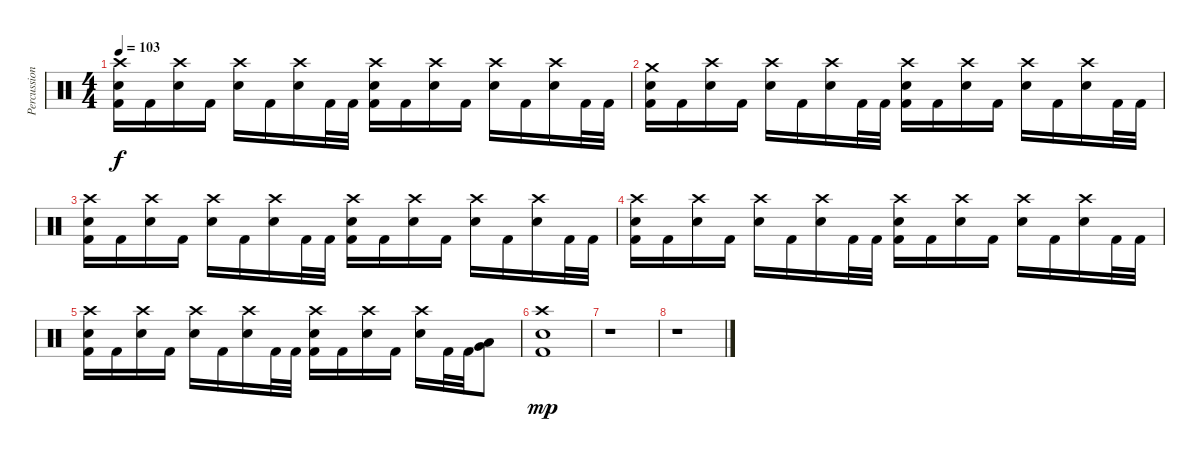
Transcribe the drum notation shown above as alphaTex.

\track ("Percussion - Brandon Barnes" "Percussion") {instrument percussion}
\staff {score}
\articulation defaults
\ts (4 4)
\tempo 103
\clef neutral
\ks c
("Crash high (hit)" "Electric Snare (hit)" "Kick (hit) 2").16{dy f} "Kick (hit) 2".16 ("Crash high (hit)" "Electric Snare (hit)").16 "Kick (hit) 2".16 ("Crash high (hit)" "Electric Snare (hit)").16 "Kick (hit) 2".16 ("Crash high (hit)" "Electric Snare (hit)").16 "Kick (hit) 2".32 "Kick (hit) 2".32 ("Crash high (hit)" "Electric Snare (hit)" "Kick (hit) 2").16 "Kick (hit) 2".16 ("Crash high (hit)" "Electric Snare (hit)").16 "Kick (hit) 2".16 ("Crash high (hit)" "Electric Snare (hit)").16 "Kick (hit) 2".16 ("Crash high (hit)" "Electric Snare (hit)").16 "Kick (hit) 2".32 "Kick (hit) 2".32 |
("Crash medium (hit)" "Electric Snare (hit)" "Kick (hit) 2").16 "Kick (hit) 2".16 ("Crash high (hit)" "Electric Snare (hit)").16 "Kick (hit) 2".16 ("Crash high (hit)" "Electric Snare (hit)").16 "Kick (hit) 2".16 ("Crash high (hit)" "Electric Snare (hit)").16 "Kick (hit) 2".32 "Kick (hit) 2".32 ("Crash high (hit)" "Electric Snare (hit)" "Kick (hit) 2").16 "Kick (hit) 2".16 ("Crash high (hit)" "Electric Snare (hit)").16 "Kick (hit) 2".16 ("Crash high (hit)" "Electric Snare (hit)").16 "Kick (hit) 2".16 ("Crash high (hit)" "Electric Snare (hit)").16 "Kick (hit) 2".32 "Kick (hit) 2".32 |
("Crash high (hit)" "Electric Snare (hit)" "Kick (hit) 2").16 "Kick (hit) 2".16 ("Crash high (hit)" "Electric Snare (hit)").16 "Kick (hit) 2".16 ("Crash high (hit)" "Electric Snare (hit)").16 "Kick (hit) 2".16 ("Crash high (hit)" "Electric Snare (hit)").16 "Kick (hit) 2".32 "Kick (hit) 2".32 ("Crash high (hit)" "Electric Snare (hit)" "Kick (hit) 2").16 "Kick (hit) 2".16 ("Crash high (hit)" "Electric Snare (hit)").16 "Kick (hit) 2".16 ("Crash high (hit)" "Electric Snare (hit)").16 "Kick (hit) 2".16 ("Crash high (hit)" "Electric Snare (hit)").16 "Kick (hit) 2".32 "Kick (hit) 2".32 |
("Crash high (hit)" "Electric Snare (hit)" "Kick (hit) 2").16 "Kick (hit) 2".16 ("Crash high (hit)" "Electric Snare (hit)").16 "Kick (hit) 2".16 ("Crash high (hit)" "Electric Snare (hit)").16 "Kick (hit) 2".16 ("Crash high (hit)" "Electric Snare (hit)").16 "Kick (hit) 2".32 "Kick (hit) 2".32 ("Crash high (hit)" "Electric Snare (hit)" "Kick (hit) 2").16 "Kick (hit) 2".16 ("Crash high (hit)" "Electric Snare (hit)").16 "Kick (hit) 2".16 ("Crash high (hit)" "Electric Snare (hit)").16 "Kick (hit) 2".16 ("Crash high (hit)" "Electric Snare (hit)").16 "Kick (hit) 2".32 "Kick (hit) 2".32 |
("Crash high (hit)" "Electric Snare (hit)" "Kick (hit) 2").16 "Kick (hit) 2".16 ("Crash high (hit)" "Electric Snare (hit)").16 "Kick (hit) 2".16 ("Crash high (hit)" "Electric Snare (hit)").16 "Kick (hit) 2".16 ("Crash high (hit)" "Electric Snare (hit)").16 "Kick (hit) 2".32 "Kick (hit) 2".32 ("Crash high (hit)" "Electric Snare (hit)" "Kick (hit) 2").16 "Kick (hit) 2".16 ("Crash high (hit)" "Electric Snare (hit)").16 "Kick (hit) 2".16 ("Crash high (hit)" "Electric Snare (hit)").16 "Kick (hit) 2".32 "Kick (hit) 2".32 ("Low Tom (hit)" "Very Low Tom (hit)").8 |
("Crash high (hit)" "Electric Snare (hit)" "Kick (hit) 2").1{dy mp} |
r.1 |
r.1
